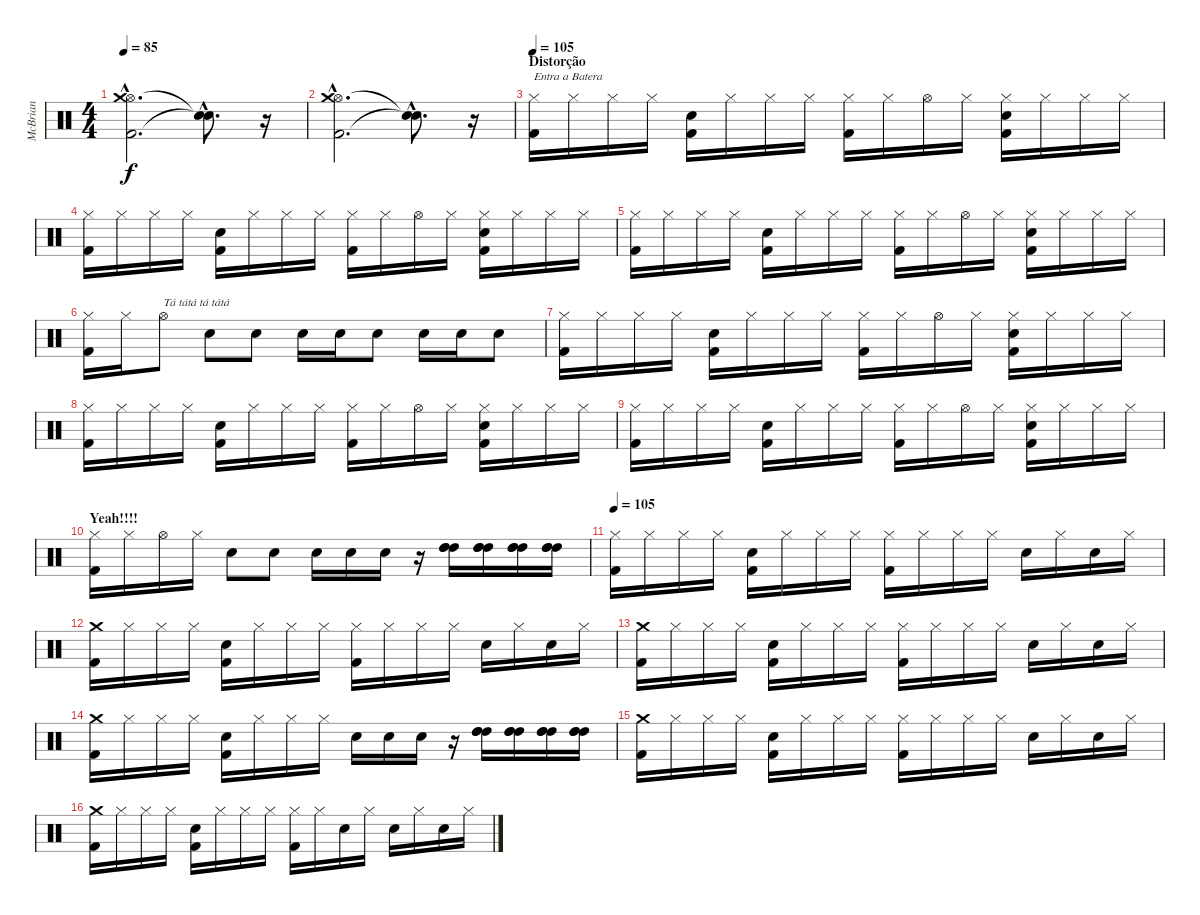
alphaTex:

\track ("McBrian" "McBrian") {instrument percussion}
\staff {score}
\articulation defaults
\ts (4 4)
\tempo 85
\clef neutral
\ks c
("Kick (hit) 2"{hac} "Hi-Hat (open)"{hac} "Crash medium (hit)"{hac}).2{d dy f} ("Snare (hit)"{hac t} "Snare (hit)"{hac t}).8{d} r.16 |
("Kick (hit) 2"{hac} "Hi-Hat (open)"{hac} "Crash medium (hit)"{hac}).2{d} ("Snare (hit)"{hac t} "Snare (hit)"{hac t}).8{d} r.16 |
\section ("" "Distorção")
\tempo 105
("Kick (hit) 2" "Hi-Hat (closed)").16{txt "Entra a Batera"} "Hi-Hat (closed)".16 "Hi-Hat (closed)".16 "Hi-Hat (closed)".16 ("Snare (hit) 2" "Kick (hit) 2").16 "Hi-Hat (closed)".16 "Hi-Hat (closed)".16 "Hi-Hat (closed)".16 ("Hi-Hat (closed)" "Kick (hit) 2").16 "Hi-Hat (closed)".16 "Hi-Hat (open)".16 "Hi-Hat (closed)".16 ("Snare (hit) 2" "Hi-Hat (closed)" "Kick (hit) 2").16 "Hi-Hat (closed)".16 "Hi-Hat (closed)".16 "Hi-Hat (closed)".16 |
("Kick (hit) 2" "Hi-Hat (closed)").16 "Hi-Hat (closed)".16 "Hi-Hat (closed)".16 "Hi-Hat (closed)".16 ("Snare (hit) 2" "Kick (hit) 2").16 "Hi-Hat (closed)".16 "Hi-Hat (closed)".16 "Hi-Hat (closed)".16 ("Hi-Hat (closed)" "Kick (hit) 2").16 "Hi-Hat (closed)".16 "Hi-Hat (open)".16 "Hi-Hat (closed)".16 ("Snare (hit) 2" "Hi-Hat (closed)" "Kick (hit) 2").16 "Hi-Hat (closed)".16 "Hi-Hat (closed)".16 "Hi-Hat (closed)".16 |
("Kick (hit) 2" "Hi-Hat (closed)").16 "Hi-Hat (closed)".16 "Hi-Hat (closed)".16 "Hi-Hat (closed)".16 ("Snare (hit) 2" "Kick (hit) 2").16 "Hi-Hat (closed)".16 "Hi-Hat (closed)".16 "Hi-Hat (closed)".16 ("Hi-Hat (closed)" "Kick (hit) 2").16 "Hi-Hat (closed)".16 "Hi-Hat (open)".16 "Hi-Hat (closed)".16 ("Snare (hit) 2" "Hi-Hat (closed)" "Kick (hit) 2").16 "Hi-Hat (closed)".16 "Hi-Hat (closed)".16 "Hi-Hat (closed)".16 |
("Hi-Hat (closed)" "Kick (hit) 2").16 "Hi-Hat (closed)".16 "Hi-Hat (open)".8{txt "Tá tátá tá tátá"} "Snare (hit) 2".8 "Snare (hit) 2".8 "Snare (hit) 2".16 "Snare (hit) 2".16 "Snare (hit) 2".8 "Snare (hit) 2".16 "Snare (hit) 2".16 "Snare (hit) 2".8 |
("Kick (hit) 2" "Hi-Hat (closed)").16 "Hi-Hat (closed)".16 "Hi-Hat (closed)".16 "Hi-Hat (closed)".16 ("Snare (hit) 2" "Kick (hit) 2").16 "Hi-Hat (closed)".16 "Hi-Hat (closed)".16 "Hi-Hat (closed)".16 ("Hi-Hat (closed)" "Kick (hit) 2").16 "Hi-Hat (closed)".16 "Hi-Hat (open)".16 "Hi-Hat (closed)".16 ("Snare (hit) 2" "Hi-Hat (closed)" "Kick (hit) 2").16 "Hi-Hat (closed)".16 "Hi-Hat (closed)".16 "Hi-Hat (closed)".16 |
("Kick (hit) 2" "Hi-Hat (closed)").16 "Hi-Hat (closed)".16 "Hi-Hat (closed)".16 "Hi-Hat (closed)".16 ("Snare (hit) 2" "Kick (hit) 2").16 "Hi-Hat (closed)".16 "Hi-Hat (closed)".16 "Hi-Hat (closed)".16 ("Hi-Hat (closed)" "Kick (hit) 2").16 "Hi-Hat (closed)".16 "Hi-Hat (open)".16 "Hi-Hat (closed)".16 ("Snare (hit) 2" "Hi-Hat (closed)" "Kick (hit) 2").16 "Hi-Hat (closed)".16 "Hi-Hat (closed)".16 "Hi-Hat (closed)".16 |
("Kick (hit) 2" "Hi-Hat (closed)").16 "Hi-Hat (closed)".16 "Hi-Hat (closed)".16 "Hi-Hat (closed)".16 ("Snare (hit) 2" "Kick (hit) 2").16 "Hi-Hat (closed)".16 "Hi-Hat (closed)".16 "Hi-Hat (closed)".16 ("Hi-Hat (closed)" "Kick (hit) 2").16 "Hi-Hat (closed)".16 "Hi-Hat (open)".16 "Hi-Hat (closed)".16 ("Snare (hit) 2" "Hi-Hat (closed)" "Kick (hit) 2").16 "Hi-Hat (closed)".16 "Hi-Hat (closed)".16 "Hi-Hat (closed)".16 |
\section ("" "Yeah!!!!")
("Hi-Hat (closed)" "Kick (hit) 2").16 "Hi-Hat (closed)".16 "Hi-Hat (open)".16 "Hi-Hat (closed)".16 "Snare (hit) 2".8 "Snare (hit) 2".8 "Snare (hit) 2".16 "Snare (hit) 2".16 "Snare (hit) 2".16 r.16 ("High Tom (hit)" "High Tom (hit)" "High Tom (hit)").16 ("High Tom (hit)" "High Tom (hit)" "High Tom (hit)").16 ("High Tom (hit)" "High Tom (hit)" "High Tom (hit)").16 ("High Tom (hit)" "High Tom (hit)" "High Tom (hit)").16 |
\tempo 105
("Hi-Hat (closed)" "Kick (hit) 2").16 "Hi-Hat (closed)".16 "Hi-Hat (closed)".16 "Hi-Hat (closed)".16 ("Snare (hit) 2" "Kick (hit) 2").16 "Hi-Hat (closed)".16 "Hi-Hat (closed)".16 "Hi-Hat (closed)".16 ("Kick (hit) 2" "Hi-Hat (closed)").16 "Hi-Hat (closed)".16 "Hi-Hat (closed)".16 "Hi-Hat (closed)".16 "Snare (hit) 2".16 "Hi-Hat (closed)".16 "Snare (hit) 2".16 "Hi-Hat (closed)".16 |
("Crash medium (hit)" "Kick (hit) 2").16 "Hi-Hat (closed)".16 "Hi-Hat (closed)".16 "Hi-Hat (closed)".16 ("Kick (hit) 2" "Snare (hit) 2").16 "Hi-Hat (closed)".16 "Hi-Hat (closed)".16 "Hi-Hat (closed)".16 ("Hi-Hat (closed)" "Kick (hit) 2").16 "Hi-Hat (closed)".16 "Hi-Hat (closed)".16 "Hi-Hat (closed)".16 "Snare (hit) 2".16 "Hi-Hat (closed)".16 "Snare (hit) 2".16 "Hi-Hat (closed)".16 |
("Crash medium (hit)" "Kick (hit) 2").16 "Hi-Hat (closed)".16 "Hi-Hat (closed)".16 "Hi-Hat (closed)".16 ("Kick (hit) 2" "Snare (hit) 2").16 "Hi-Hat (closed)".16 "Hi-Hat (closed)".16 "Hi-Hat (closed)".16 ("Hi-Hat (closed)" "Kick (hit) 2").16 "Hi-Hat (closed)".16 "Hi-Hat (closed)".16 "Hi-Hat (closed)".16 "Snare (hit) 2".16 "Hi-Hat (closed)".16 "Snare (hit) 2".16 "Hi-Hat (closed)".16 |
("Crash medium (hit)" "Kick (hit) 2").16 "Hi-Hat (closed)".16 "Hi-Hat (closed)".16 "Hi-Hat (closed)".16 ("Snare (hit) 2" "Kick (hit) 2").16 "Hi-Hat (closed)".16 "Hi-Hat (closed)".16 "Hi-Hat (closed)".16 "Snare (hit) 2".16 "Snare (hit) 2".16 "Snare (hit) 2".16 r.16 ("High Tom (hit)" "High Tom (hit)" "High Tom (hit)").16 ("High Tom (hit)" "High Tom (hit)" "High Tom (hit)").16 ("High Tom (hit)" "High Tom (hit)" "High Tom (hit)").16 ("High Tom (hit)" "High Tom (hit)" "High Tom (hit)").16 |
("Crash medium (hit)" "Kick (hit) 2").16 "Hi-Hat (closed)".16 "Hi-Hat (closed)".16 "Hi-Hat (closed)".16 ("Kick (hit) 2" "Snare (hit) 2").16 "Hi-Hat (closed)".16 "Hi-Hat (closed)".16 "Hi-Hat (closed)".16 ("Kick (hit) 2" "Hi-Hat (closed)").16 "Hi-Hat (closed)".16 "Hi-Hat (closed)".16 "Hi-Hat (closed)".16 "Snare (hit) 2".16 "Hi-Hat (closed)".16 "Snare (hit) 2".16 "Hi-Hat (closed)".16 |
("Crash medium (hit)" "Kick (hit) 2").16 "Hi-Hat (closed)".16 "Hi-Hat (closed)".16 "Hi-Hat (closed)".16 ("Snare (hit) 2" "Kick (hit) 2").16 "Hi-Hat (closed)".16 "Hi-Hat (closed)".16 "Hi-Hat (closed)".16 ("Hi-Hat (closed)" "Kick (hit) 2").16 "Hi-Hat (closed)".16 "Snare (hit)".16 "Hi-Hat (closed)".16 "Snare (hit) 2".16 "Hi-Hat (closed)".16 "Snare (hit) 2".16 "Hi-Hat (closed)".16
